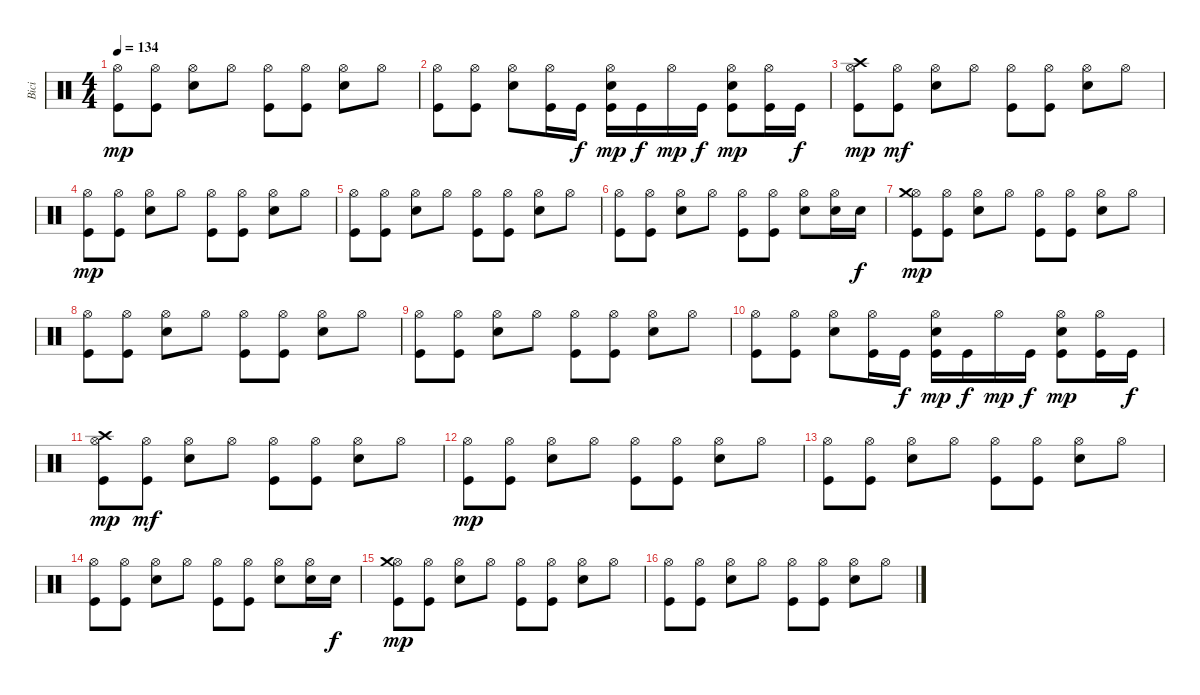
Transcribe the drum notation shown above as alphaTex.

\track ("Bici" "Bici") {instrument percussion}
\staff {score}
\articulation defaults
\ts (4 4)
\tempo 134
\clef neutral
\ks c
("Kick (hit)" "Hi-Hat (open)").8{dy mp} ("Kick (hit)" "Hi-Hat (open)").8 ("Electric Snare (hit)" "Hi-Hat (open)").8 "Hi-Hat (open)".8 ("Kick (hit)" "Hi-Hat (open)").8 ("Kick (hit)" "Hi-Hat (open)").8 ("Electric Snare (hit)" "Hi-Hat (open)").8 "Hi-Hat (open)".8 |
("Kick (hit)" "Hi-Hat (open)").8 ("Kick (hit)" "Hi-Hat (open)").8 ("Electric Snare (hit)" "Hi-Hat (open)").8 ("Kick (hit)" "Hi-Hat (open)").16 "Kick (hit)".16{dy f} ("Kick (hit)" "Electric Snare (hit)" "Hi-Hat (open)").16{dy mp} "Kick (hit)".16{dy f} "Hi-Hat (open)".16{dy mp} "Kick (hit)".16{dy f} ("Kick (hit)" "Electric Snare (hit)" "Hi-Hat (open)").8{dy mp} ("Kick (hit)" "Hi-Hat (open)").16 "Kick (hit)".16{dy f} |
("Kick (hit)" "Hi-Hat (open)" "Crash high (hit)").8{dy mp} ("Kick (hit)" "Hi-Hat (open)").8{dy mf} ("Electric Snare (hit)" "Hi-Hat (open)").8 "Hi-Hat (open)".8 ("Kick (hit)" "Hi-Hat (open)").8 ("Kick (hit)" "Hi-Hat (open)").8 ("Electric Snare (hit)" "Hi-Hat (open)").8 "Hi-Hat (open)".8 |
("Kick (hit)" "Hi-Hat (open)").8{dy mp} ("Kick (hit)" "Hi-Hat (open)").8 ("Electric Snare (hit)" "Hi-Hat (open)").8 "Hi-Hat (open)".8 ("Kick (hit)" "Hi-Hat (open)").8 ("Kick (hit)" "Hi-Hat (open)").8 ("Electric Snare (hit)" "Hi-Hat (open)").8 "Hi-Hat (open)".8 |
("Kick (hit)" "Hi-Hat (open)").8 ("Kick (hit)" "Hi-Hat (open)").8 ("Electric Snare (hit)" "Hi-Hat (open)").8 "Hi-Hat (open)".8 ("Kick (hit)" "Hi-Hat (open)").8 ("Kick (hit)" "Hi-Hat (open)").8 ("Electric Snare (hit)" "Hi-Hat (open)").8 "Hi-Hat (open)".8 |
("Kick (hit)" "Hi-Hat (open)").8 ("Kick (hit)" "Hi-Hat (open)").8 ("Electric Snare (hit)" "Hi-Hat (open)").8 "Hi-Hat (open)".8 ("Kick (hit)" "Hi-Hat (open)").8 ("Kick (hit)" "Hi-Hat (open)").8 ("Electric Snare (hit)" "Hi-Hat (open)").8 ("Electric Snare (hit)" "Hi-Hat (open)").16 "Electric Snare (hit)".16{dy f} |
("Kick (hit)" "Hi-Hat (open)" "Crash medium (hit)").8{dy mp} ("Kick (hit)" "Hi-Hat (open)").8 ("Electric Snare (hit)" "Hi-Hat (open)").8 "Hi-Hat (open)".8 ("Kick (hit)" "Hi-Hat (open)").8 ("Kick (hit)" "Hi-Hat (open)").8 ("Electric Snare (hit)" "Hi-Hat (open)").8 "Hi-Hat (open)".8 |
("Kick (hit)" "Hi-Hat (open)").8 ("Kick (hit)" "Hi-Hat (open)").8 ("Electric Snare (hit)" "Hi-Hat (open)").8 "Hi-Hat (open)".8 ("Kick (hit)" "Hi-Hat (open)").8 ("Kick (hit)" "Hi-Hat (open)").8 ("Electric Snare (hit)" "Hi-Hat (open)").8 "Hi-Hat (open)".8 |
("Kick (hit)" "Hi-Hat (open)").8 ("Kick (hit)" "Hi-Hat (open)").8 ("Electric Snare (hit)" "Hi-Hat (open)").8 "Hi-Hat (open)".8 ("Kick (hit)" "Hi-Hat (open)").8 ("Kick (hit)" "Hi-Hat (open)").8 ("Electric Snare (hit)" "Hi-Hat (open)").8 "Hi-Hat (open)".8 |
("Kick (hit)" "Hi-Hat (open)").8 ("Kick (hit)" "Hi-Hat (open)").8 ("Electric Snare (hit)" "Hi-Hat (open)").8 ("Kick (hit)" "Hi-Hat (open)").16 "Kick (hit)".16{dy f} ("Kick (hit)" "Electric Snare (hit)" "Hi-Hat (open)").16{dy mp} "Kick (hit)".16{dy f} "Hi-Hat (open)".16{dy mp} "Kick (hit)".16{dy f} ("Kick (hit)" "Electric Snare (hit)" "Hi-Hat (open)").8{dy mp} ("Kick (hit)" "Hi-Hat (open)").16 "Kick (hit)".16{dy f} |
("Kick (hit)" "Hi-Hat (open)" "Crash high (hit)").8{dy mp} ("Kick (hit)" "Hi-Hat (open)").8{dy mf} ("Electric Snare (hit)" "Hi-Hat (open)").8 "Hi-Hat (open)".8 ("Kick (hit)" "Hi-Hat (open)").8 ("Kick (hit)" "Hi-Hat (open)").8 ("Electric Snare (hit)" "Hi-Hat (open)").8 "Hi-Hat (open)".8 |
("Kick (hit)" "Hi-Hat (open)").8{dy mp} ("Kick (hit)" "Hi-Hat (open)").8 ("Electric Snare (hit)" "Hi-Hat (open)").8 "Hi-Hat (open)".8 ("Kick (hit)" "Hi-Hat (open)").8 ("Kick (hit)" "Hi-Hat (open)").8 ("Electric Snare (hit)" "Hi-Hat (open)").8 "Hi-Hat (open)".8 |
("Kick (hit)" "Hi-Hat (open)").8 ("Kick (hit)" "Hi-Hat (open)").8 ("Electric Snare (hit)" "Hi-Hat (open)").8 "Hi-Hat (open)".8 ("Kick (hit)" "Hi-Hat (open)").8 ("Kick (hit)" "Hi-Hat (open)").8 ("Electric Snare (hit)" "Hi-Hat (open)").8 "Hi-Hat (open)".8 |
("Kick (hit)" "Hi-Hat (open)").8 ("Kick (hit)" "Hi-Hat (open)").8 ("Electric Snare (hit)" "Hi-Hat (open)").8 "Hi-Hat (open)".8 ("Kick (hit)" "Hi-Hat (open)").8 ("Kick (hit)" "Hi-Hat (open)").8 ("Electric Snare (hit)" "Hi-Hat (open)").8 ("Electric Snare (hit)" "Hi-Hat (open)").16 "Electric Snare (hit)".16{dy f} |
("Kick (hit)" "Hi-Hat (open)" "Crash medium (hit)").8{dy mp} ("Kick (hit)" "Hi-Hat (open)").8 ("Electric Snare (hit)" "Hi-Hat (open)").8 "Hi-Hat (open)".8 ("Kick (hit)" "Hi-Hat (open)").8 ("Kick (hit)" "Hi-Hat (open)").8 ("Electric Snare (hit)" "Hi-Hat (open)").8 "Hi-Hat (open)".8 |
("Kick (hit)" "Hi-Hat (open)").8 ("Kick (hit)" "Hi-Hat (open)").8 ("Electric Snare (hit)" "Hi-Hat (open)").8 "Hi-Hat (open)".8 ("Kick (hit)" "Hi-Hat (open)").8 ("Kick (hit)" "Hi-Hat (open)").8 ("Electric Snare (hit)" "Hi-Hat (open)").8 "Hi-Hat (open)".8
